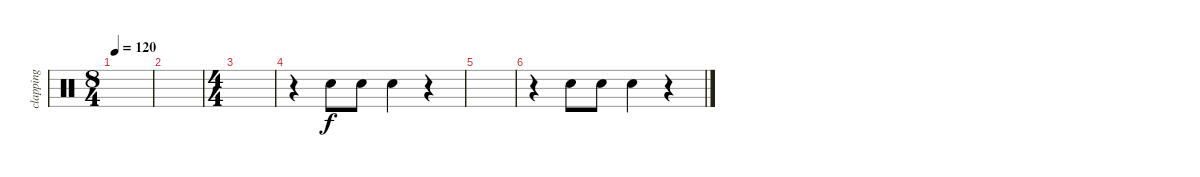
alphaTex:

\track ("clapping" "clapping") {instrument percussion}
\staff {score}
\articulation defaults
\ts (8 4)
\tempo 120
\clef neutral
\ks c
|
|
\ts (4 4)
|
r.4 "Hand Clap (hit)".8 "Hand Clap (hit)".8 "Hand Clap (hit)".4 r.4 |
|
r.4 "Hand Clap (hit)".8 "Hand Clap (hit)".8 "Hand Clap (hit)".4 r.4
